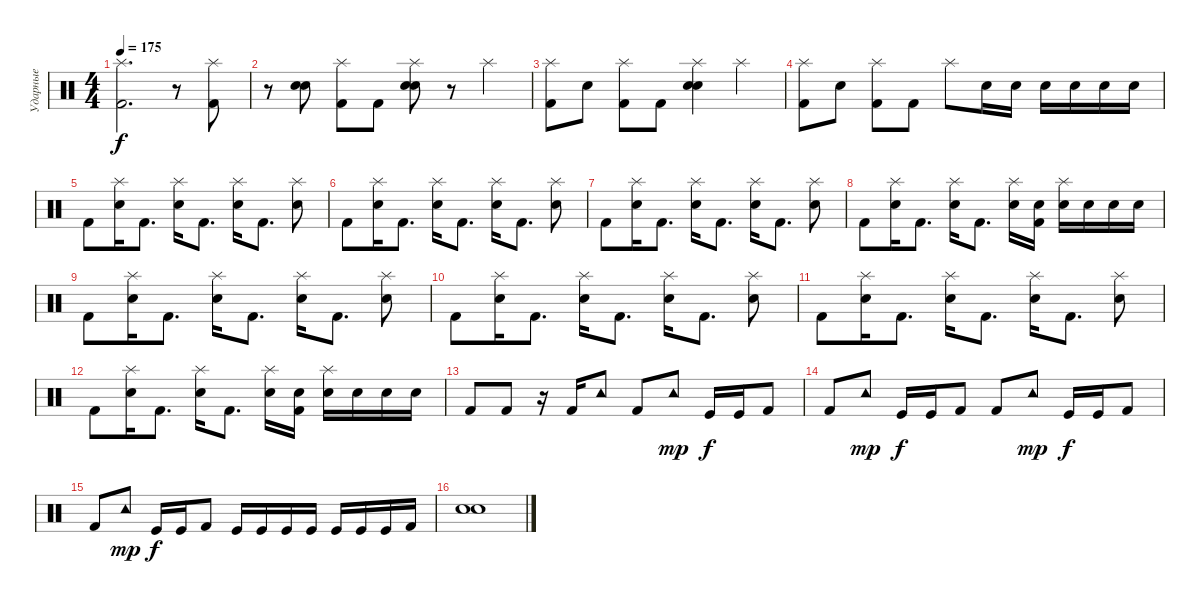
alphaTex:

\track ("Ударные" "Ударные") {instrument percussion}
\staff {score}
\articulation defaults
\ts (4 4)
\tempo 175
\clef neutral
\ks c
("Splash (hit)" "Kick (hit) 2").2{d dy f} r.8 ("Splash (hit)" "Kick (hit) 2").8 |
r.8 ("Electric Snare (hit)" "Snare (hit) 2").8 ("Splash (hit)" "Kick (hit) 2").8 "Kick (hit) 2".8 ("Splash (hit)" "Electric Snare (hit)" "Snare (hit) 2").8 r.8 "Splash (hit)".4 |
("Splash (hit)" "Kick (hit) 2").8 "Electric Snare (hit)".8 ("Splash (hit)" "Kick (hit) 2").8 "Kick (hit) 2".8 ("Splash (hit)" "Electric Snare (hit)" "Snare (hit) 2").4 "Splash (hit)".4 |
("Splash (hit)" "Kick (hit) 2").8 "Electric Snare (hit)".8 ("Splash (hit)" "Kick (hit) 2").8 "Kick (hit) 2".8 "Splash (hit)".8 "Electric Snare (hit)".16 "Electric Snare (hit)".16 "Electric Snare (hit)".16 "Electric Snare (hit)".16 "Electric Snare (hit)".16 "Electric Snare (hit)".16 |
"Kick (hit) 2".8 ("Splash (hit)" "Electric Snare (hit)").16 "Kick (hit) 2".8{d} ("Splash (hit)" "Electric Snare (hit)").16 "Kick (hit) 2".8{d} ("Splash (hit)" "Electric Snare (hit)").16 "Kick (hit) 2".8{d} ("Splash (hit)" "Electric Snare (hit)").8 |
"Kick (hit) 2".8 ("Splash (hit)" "Electric Snare (hit)").16 "Kick (hit) 2".8{d} ("Splash (hit)" "Electric Snare (hit)").16 "Kick (hit) 2".8{d} ("Splash (hit)" "Electric Snare (hit)").16 "Kick (hit) 2".8{d} ("Splash (hit)" "Electric Snare (hit)").8 |
"Kick (hit) 2".8 ("Splash (hit)" "Electric Snare (hit)").16 "Kick (hit) 2".8{d} ("Splash (hit)" "Electric Snare (hit)").16 "Kick (hit) 2".8{d} ("Splash (hit)" "Electric Snare (hit)").16 "Kick (hit) 2".8{d} ("Splash (hit)" "Electric Snare (hit)").8 |
"Kick (hit) 2".8 ("Splash (hit)" "Electric Snare (hit)").16 "Kick (hit) 2".8{d} ("Splash (hit)" "Electric Snare (hit)").16 "Kick (hit) 2".8{d} ("Splash (hit)" "Electric Snare (hit)").16 ("Electric Snare (hit)" "Kick (hit) 2").16 ("Splash (hit)" "Electric Snare (hit)").16 "Electric Snare (hit)".16 "Electric Snare (hit)".16 "Electric Snare (hit)".16 |
"Kick (hit) 2".8 ("Splash (hit)" "Electric Snare (hit)").16 "Kick (hit) 2".8{d} ("Splash (hit)" "Electric Snare (hit)").16 "Kick (hit) 2".8{d} ("Splash (hit)" "Electric Snare (hit)").16 "Kick (hit) 2".8{d} ("Splash (hit)" "Electric Snare (hit)").8 |
"Kick (hit) 2".8 ("Splash (hit)" "Electric Snare (hit)").16 "Kick (hit) 2".8{d} ("Splash (hit)" "Electric Snare (hit)").16 "Kick (hit) 2".8{d} ("Splash (hit)" "Electric Snare (hit)").16 "Kick (hit) 2".8{d} ("Splash (hit)" "Electric Snare (hit)").8 |
"Kick (hit) 2".8 ("Splash (hit)" "Electric Snare (hit)").16 "Kick (hit) 2".8{d} ("Splash (hit)" "Electric Snare (hit)").16 "Kick (hit) 2".8{d} ("Splash (hit)" "Electric Snare (hit)").16 "Kick (hit) 2".8{d} ("Splash (hit)" "Electric Snare (hit)").8 |
"Kick (hit) 2".8 ("Splash (hit)" "Electric Snare (hit)").16 "Kick (hit) 2".8{d} ("Splash (hit)" "Electric Snare (hit)").16 "Kick (hit) 2".8{d} ("Splash (hit)" "Electric Snare (hit)").16 ("Electric Snare (hit)" "Kick (hit) 2").16 ("Splash (hit)" "Electric Snare (hit)").16 "Electric Snare (hit)".16 "Electric Snare (hit)".16 "Electric Snare (hit)".16 |
"Kick (hit) 2".8 "Kick (hit) 2".8 r.16 "Kick (hit) 2".16 "Tambourine (hit)".8 "Kick (hit) 2".8 "Tambourine (hit)".8{dy mp} "Kick (hit)".16{dy f} "Kick (hit)".16 "Kick (hit) 2".8 |
"Kick (hit) 2".8 "Tambourine (hit)".8{dy mp} "Kick (hit)".16{dy f} "Kick (hit)".16 "Kick (hit) 2".8 "Kick (hit) 2".8 "Tambourine (hit)".8{dy mp} "Kick (hit)".16{dy f} "Kick (hit)".16 "Kick (hit) 2".8 |
"Kick (hit) 2".8 "Tambourine (hit)".8{dy mp} "Kick (hit)".16{dy f} "Kick (hit)".16 "Kick (hit) 2".8 "Kick (hit)".16 "Kick (hit)".16 "Kick (hit)".16 "Kick (hit)".16 "Kick (hit)".16 "Kick (hit)".16 "Kick (hit)".16 "Kick (hit) 2".16 |
("Electric Snare (hit)" "Snare (hit) 2").1
